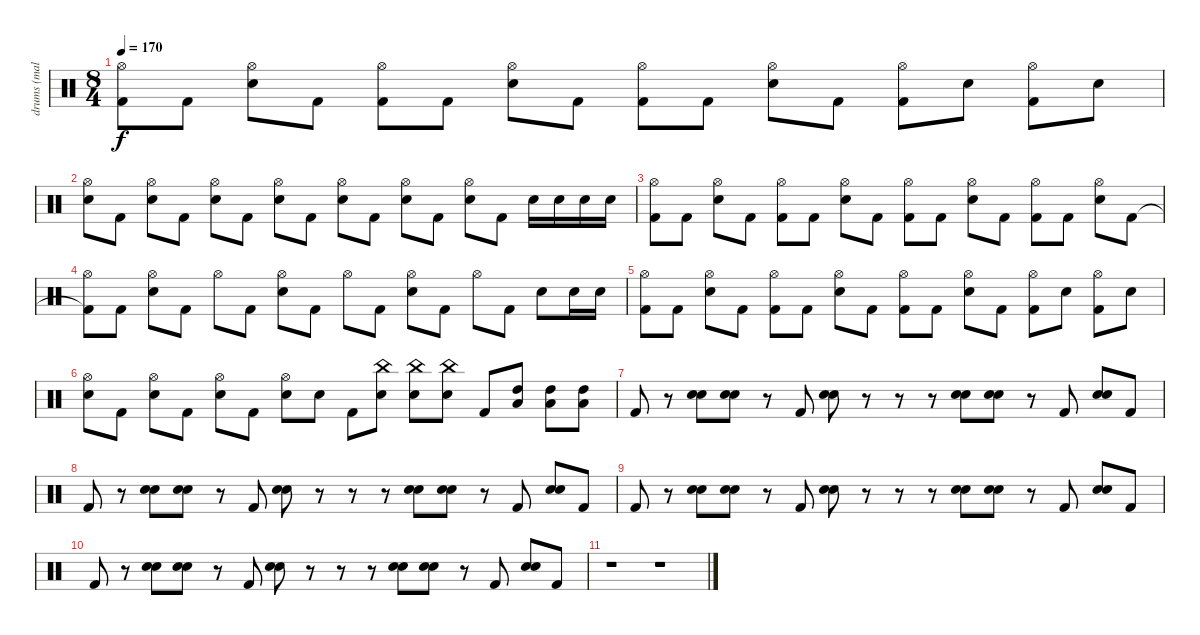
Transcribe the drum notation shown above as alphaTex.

\track ("drums (male)" "drums (mal") {mute instrument percussion}
\staff {score}
\articulation defaults
\ts (8 4)
\tempo 170
\clef neutral
\ks c
("Kick (hit) 2" "Hi-Hat (open)").8{dy f} "Kick (hit) 2".8 ("Electric Snare (hit)" "Hi-Hat (open)").8 "Kick (hit) 2".8 ("Kick (hit) 2" "Hi-Hat (open)").8 "Kick (hit) 2".8 ("Electric Snare (hit)" "Hi-Hat (open)").8 "Kick (hit) 2".8 ("Kick (hit) 2" "Hi-Hat (open)").8 "Kick (hit) 2".8 ("Electric Snare (hit)" "Hi-Hat (open)").8 "Kick (hit) 2".8 ("Kick (hit) 2" "Hi-Hat (open)").8 "Electric Snare (hit)".8 ("Kick (hit) 2" "Hi-Hat (open)").8 "Electric Snare (hit)".8 |
("Electric Snare (hit)" "Hi-Hat (open)").8 "Kick (hit) 2".8 ("Electric Snare (hit)" "Hi-Hat (open)").8 "Kick (hit) 2".8 ("Electric Snare (hit)" "Hi-Hat (open)").8 "Kick (hit) 2".8 ("Electric Snare (hit)" "Hi-Hat (open)").8 "Kick (hit) 2".8 ("Electric Snare (hit)" "Hi-Hat (open)").8 "Kick (hit) 2".8 ("Electric Snare (hit)" "Hi-Hat (open)").8 "Kick (hit) 2".8 ("Electric Snare (hit)" "Hi-Hat (open)").8 "Kick (hit) 2".8 "Electric Snare (hit)".16 "Electric Snare (hit)".16 "Electric Snare (hit)".16 "Electric Snare (hit)".16 |
("Kick (hit) 2" "Hi-Hat (open)").8 "Kick (hit) 2".8 ("Electric Snare (hit)" "Hi-Hat (open)").8 "Kick (hit) 2".8 ("Kick (hit) 2" "Hi-Hat (open)").8 "Kick (hit) 2".8 ("Electric Snare (hit)" "Hi-Hat (open)").8 "Kick (hit) 2".8 ("Kick (hit) 2" "Hi-Hat (open)").8 "Kick (hit) 2".8 ("Electric Snare (hit)" "Hi-Hat (open)").8 "Kick (hit) 2".8 ("Kick (hit) 2" "Hi-Hat (open)").8 "Kick (hit) 2".8 ("Electric Snare (hit)" "Hi-Hat (open)").8 "Kick (hit) 2".8 |
("Kick (hit) 2"{t} "Hi-Hat (open)").8 "Kick (hit) 2".8 ("Electric Snare (hit)" "Hi-Hat (open)").8 "Kick (hit) 2".8 "Hi-Hat (open)".8 "Kick (hit) 2".8 ("Electric Snare (hit)" "Hi-Hat (open)").8 "Kick (hit) 2".8 "Hi-Hat (open)".8 "Kick (hit) 2".8 ("Electric Snare (hit)" "Hi-Hat (open)").8 "Kick (hit) 2".8 "Hi-Hat (open)".8 "Kick (hit) 2".8 "Electric Snare (hit)".8 "Electric Snare (hit)".16 "Electric Snare (hit)".16 |
("Kick (hit) 2" "Hi-Hat (open)").8 "Kick (hit) 2".8 ("Electric Snare (hit)" "Hi-Hat (open)").8 "Kick (hit) 2".8 ("Kick (hit) 2" "Hi-Hat (open)").8 "Kick (hit) 2".8 ("Electric Snare (hit)" "Hi-Hat (open)").8 "Kick (hit) 2".8 ("Kick (hit) 2" "Hi-Hat (open)").8 "Kick (hit) 2".8 ("Electric Snare (hit)" "Hi-Hat (open)").8 "Kick (hit) 2".8 ("Kick (hit) 2" "Hi-Hat (open)").8 "Electric Snare (hit)".8 ("Kick (hit) 2" "Hi-Hat (open)").8 "Electric Snare (hit)".8 |
("Electric Snare (hit)" "Hi-Hat (open)").8 "Kick (hit) 2".8 ("Electric Snare (hit)" "Hi-Hat (open)").8 "Kick (hit) 2".8 ("Electric Snare (hit)" "Hi-Hat (open)").8 "Kick (hit) 2".8 ("Electric Snare (hit)" "Hi-Hat (open)").8 "Electric Snare (hit)".8 "Kick (hit) 2".8 ("Electric Snare (hit)" "China (hit)").8 ("Electric Snare (hit)" "China (hit)").8 ("Electric Snare (hit)" "China (hit)").8 "Kick (hit) 2".8 ("High Tom (hit)" "Low Tom (hit)").8 ("High Tom (hit)" "Low Tom (hit)").8 ("High Tom (hit)" "Low Tom (hit)").8 |
"Kick (hit) 2".8 r.8 ("Electric Snare (hit)" "Hand Clap (hit)").8 ("Electric Snare (hit)" "Hand Clap (hit)").8 r.8 "Kick (hit) 2".8 ("Electric Snare (hit)" "Hand Clap (hit)").8 r.8 r.8 r.8 ("Electric Snare (hit)" "Hand Clap (hit)").8 ("Electric Snare (hit)" "Hand Clap (hit)").8 r.8 "Kick (hit) 2".8 ("Electric Snare (hit)" "Hand Clap (hit)").8 "Kick (hit) 2".8 |
"Kick (hit) 2".8 r.8 ("Electric Snare (hit)" "Hand Clap (hit)").8 ("Electric Snare (hit)" "Hand Clap (hit)").8 r.8 "Kick (hit) 2".8 ("Electric Snare (hit)" "Hand Clap (hit)").8 r.8 r.8 r.8 ("Electric Snare (hit)" "Hand Clap (hit)").8 ("Electric Snare (hit)" "Hand Clap (hit)").8 r.8 "Kick (hit) 2".8 ("Electric Snare (hit)" "Hand Clap (hit)").8 "Kick (hit) 2".8 |
"Kick (hit) 2".8 r.8 ("Electric Snare (hit)" "Hand Clap (hit)").8 ("Electric Snare (hit)" "Hand Clap (hit)").8 r.8 "Kick (hit) 2".8 ("Electric Snare (hit)" "Hand Clap (hit)").8 r.8 r.8 r.8 ("Electric Snare (hit)" "Hand Clap (hit)").8 ("Electric Snare (hit)" "Hand Clap (hit)").8 r.8 "Kick (hit) 2".8 ("Electric Snare (hit)" "Hand Clap (hit)").8 "Kick (hit) 2".8 |
"Kick (hit) 2".8 r.8 ("Electric Snare (hit)" "Hand Clap (hit)").8 ("Electric Snare (hit)" "Hand Clap (hit)").8 r.8 "Kick (hit) 2".8 ("Electric Snare (hit)" "Hand Clap (hit)").8 r.8 r.8 r.8 ("Electric Snare (hit)" "Hand Clap (hit)").8 ("Electric Snare (hit)" "Hand Clap (hit)").8 r.8 "Kick (hit) 2".8 ("Electric Snare (hit)" "Hand Clap (hit)").8 "Kick (hit) 2".8 |
r.1 r.1
